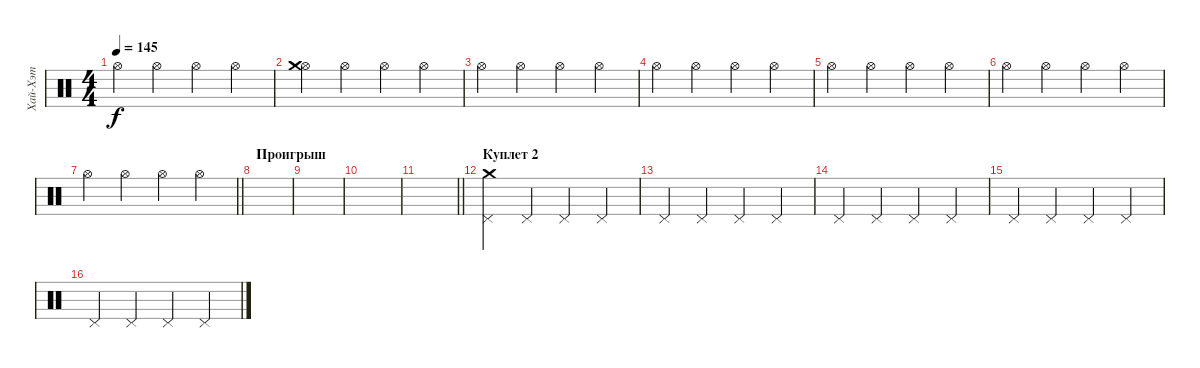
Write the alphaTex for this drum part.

\track ("Хай-Хэт" "Хай-Хэт") {instrument percussion}
\staff {score}
\articulation defaults
\ts (4 4)
\tempo 145
\clef neutral
\ks c "Hi-Hat (open)".4{dy f} "Hi-Hat (open)".4 "Hi-Hat (open)".4 "Hi-Hat (open)".4
|
("Hi-Hat (open)" "Crash medium (hit)").4 "Hi-Hat (open)".4 "Hi-Hat (open)".4 "Hi-Hat (open)".4 |
"Hi-Hat (open)".4 "Hi-Hat (open)".4 "Hi-Hat (open)".4 "Hi-Hat (open)".4 |
"Hi-Hat (open)".4 "Hi-Hat (open)".4 "Hi-Hat (open)".4 "Hi-Hat (open)".4 |
"Hi-Hat (open)".4 "Hi-Hat (open)".4 "Hi-Hat (open)".4 "Hi-Hat (open)".4 |
"Hi-Hat (open)".4 "Hi-Hat (open)".4 "Hi-Hat (open)".4 "Hi-Hat (open)".4 |
\barLineRight lightlight "Hi-Hat (open)".4 "Hi-Hat (open)".4 "Hi-Hat (open)".4 "Hi-Hat (open)".4
|
\section ("" "Проигрыш")
|
|
|
\barLineRight lightlight
|
\section ("" "Куплет 2")
("Crash medium (hit)" "Pedal Hi-Hat (hit)").4 "Pedal Hi-Hat (hit)".4 "Pedal Hi-Hat (hit)".4 "Pedal Hi-Hat (hit)".4 |
"Pedal Hi-Hat (hit)".4 "Pedal Hi-Hat (hit)".4 "Pedal Hi-Hat (hit)".4 "Pedal Hi-Hat (hit)".4 |
"Pedal Hi-Hat (hit)".4 "Pedal Hi-Hat (hit)".4 "Pedal Hi-Hat (hit)".4 "Pedal Hi-Hat (hit)".4 |
"Pedal Hi-Hat (hit)".4 "Pedal Hi-Hat (hit)".4 "Pedal Hi-Hat (hit)".4 "Pedal Hi-Hat (hit)".4 |
"Pedal Hi-Hat (hit)".4 "Pedal Hi-Hat (hit)".4 "Pedal Hi-Hat (hit)".4 "Pedal Hi-Hat (hit)".4
